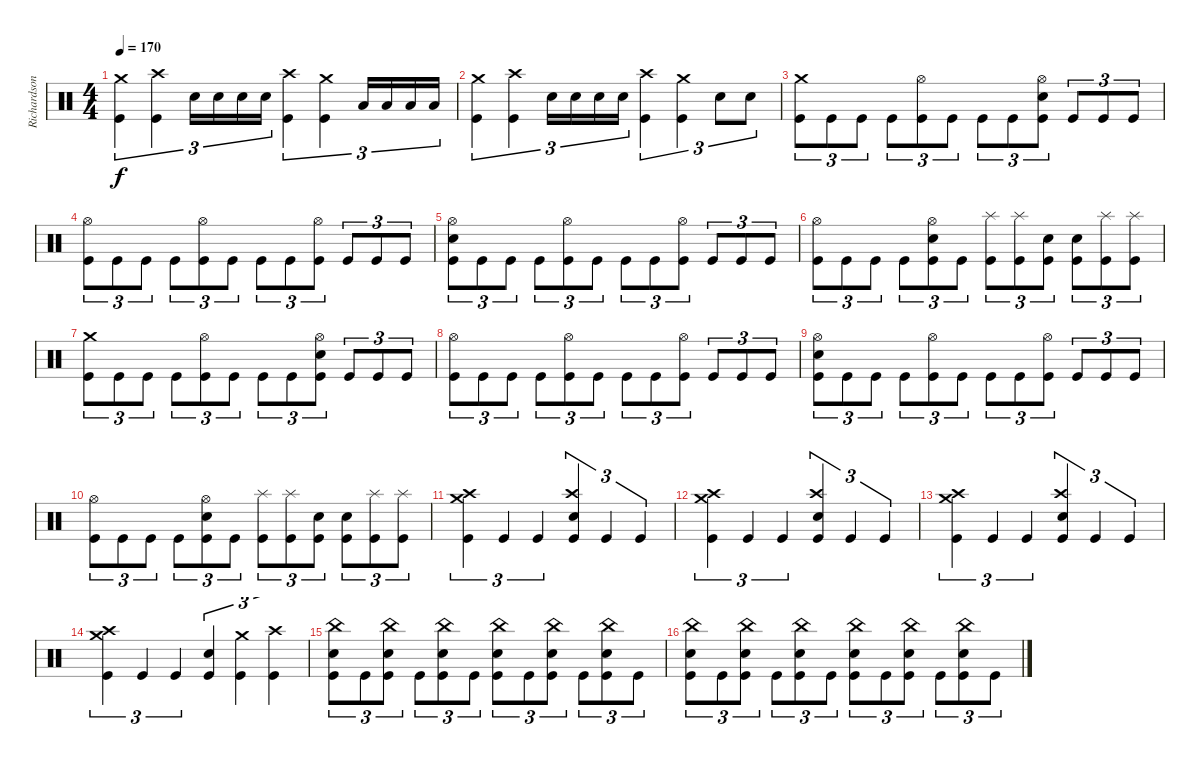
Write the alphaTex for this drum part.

\track ("Richardson" "Richardson") {instrument percussion}
\staff {score}
\articulation defaults
\ts (4 4)
\tempo 170
\clef neutral
\ks c
("Crash medium (hit)" "Kick (hit)").4{tu (3 2) dy f} ("Crash high (hit)" "Kick (hit)").4{tu (3 2)} "Electric Snare (hit)".16{tu (3 2)} "Electric Snare (hit)".16{tu (3 2)} "Electric Snare (hit)".16{tu (3 2)} "Electric Snare (hit)".16{tu (3 2)} ("Crash high (hit)" "Kick (hit)").4{tu (3 2)} ("Crash medium (hit)" "Kick (hit)").4{tu (3 2)} "Low Floor Tom (hit)".16{tu (3 2)} "Low Floor Tom (hit)".16{tu (3 2)} "Low Floor Tom (hit)".16{tu (3 2)} "Low Floor Tom (hit)".16{tu (3 2)} |
("Crash medium (hit)" "Kick (hit)").4{tu (3 2)} ("Crash high (hit)" "Kick (hit)").4{tu (3 2)} "Electric Snare (hit)".16{tu (3 2)} "Electric Snare (hit)".16{tu (3 2)} "Electric Snare (hit)".16{tu (3 2)} "Electric Snare (hit)".16{tu (3 2)} ("Crash high (hit)" "Kick (hit)").4{tu (3 2)} ("Crash medium (hit)" "Kick (hit)").4{tu (3 2)} "Electric Snare (hit)".8{tu (3 2)} "Electric Snare (hit)".8{tu (3 2)} |
("Crash medium (hit)" "Kick (hit)").8{tu (3 2)} "Kick (hit)".8{tu (3 2)} "Kick (hit)".8{tu (3 2)} "Kick (hit)".8{tu (3 2)} ("Hi-Hat (open)" "Kick (hit)").8{tu (3 2)} "Kick (hit)".8{tu (3 2)} "Kick (hit)".8{tu (3 2)} "Kick (hit)".8{tu (3 2)} ("Hi-Hat (open)" "Electric Snare (hit)" "Kick (hit)").8{tu (3 2)} "Kick (hit)".8{tu (3 2)} "Kick (hit)".8{tu (3 2)} "Kick (hit)".8{tu (3 2)} |
("Hi-Hat (open)" "Kick (hit)").8{tu (3 2)} "Kick (hit)".8{tu (3 2)} "Kick (hit)".8{tu (3 2)} "Kick (hit)".8{tu (3 2)} ("Hi-Hat (open)" "Kick (hit)").8{tu (3 2)} "Kick (hit)".8{tu (3 2)} "Kick (hit)".8{tu (3 2)} "Kick (hit)".8{tu (3 2)} ("Hi-Hat (open)" "Kick (hit)").8{tu (3 2)} "Kick (hit)".8{tu (3 2)} "Kick (hit)".8{tu (3 2)} "Kick (hit)".8{tu (3 2)} |
("Hi-Hat (open)" "Electric Snare (hit)" "Kick (hit)").8{tu (3 2)} "Kick (hit)".8{tu (3 2)} "Kick (hit)".8{tu (3 2)} "Kick (hit)".8{tu (3 2)} ("Hi-Hat (open)" "Kick (hit)").8{tu (3 2)} "Kick (hit)".8{tu (3 2)} "Kick (hit)".8{tu (3 2)} "Kick (hit)".8{tu (3 2)} ("Hi-Hat (open)" "Kick (hit)").8{tu (3 2)} "Kick (hit)".8{tu (3 2)} "Kick (hit)".8{tu (3 2)} "Kick (hit)".8{tu (3 2)} |
("Hi-Hat (open)" "Kick (hit)").8{tu (3 2)} "Kick (hit)".8{tu (3 2)} "Kick (hit)".8{tu (3 2)} "Kick (hit)".8{tu (3 2)} ("Hi-Hat (open)" "Electric Snare (hit)" "Kick (hit)").8{tu (3 2)} "Kick (hit)".8{tu (3 2)} ("Splash (hit)" "Kick (hit)").8{tu (3 2)} ("Splash (hit)" "Kick (hit)").8{tu (3 2)} ("Electric Snare (hit)" "Kick (hit)").8{tu (3 2)} ("Electric Snare (hit)" "Kick (hit)").8{tu (3 2)} ("Splash (hit)" "Kick (hit)").8{tu (3 2)} ("Splash (hit)" "Kick (hit)").8{tu (3 2)} |
("Crash medium (hit)" "Kick (hit)").8{tu (3 2)} "Kick (hit)".8{tu (3 2)} "Kick (hit)".8{tu (3 2)} "Kick (hit)".8{tu (3 2)} ("Hi-Hat (open)" "Kick (hit)").8{tu (3 2)} "Kick (hit)".8{tu (3 2)} "Kick (hit)".8{tu (3 2)} "Kick (hit)".8{tu (3 2)} ("Hi-Hat (open)" "Electric Snare (hit)" "Kick (hit)").8{tu (3 2)} "Kick (hit)".8{tu (3 2)} "Kick (hit)".8{tu (3 2)} "Kick (hit)".8{tu (3 2)} |
("Hi-Hat (open)" "Kick (hit)").8{tu (3 2)} "Kick (hit)".8{tu (3 2)} "Kick (hit)".8{tu (3 2)} "Kick (hit)".8{tu (3 2)} ("Hi-Hat (open)" "Kick (hit)").8{tu (3 2)} "Kick (hit)".8{tu (3 2)} "Kick (hit)".8{tu (3 2)} "Kick (hit)".8{tu (3 2)} ("Hi-Hat (open)" "Kick (hit)").8{tu (3 2)} "Kick (hit)".8{tu (3 2)} "Kick (hit)".8{tu (3 2)} "Kick (hit)".8{tu (3 2)} |
("Hi-Hat (open)" "Electric Snare (hit)" "Kick (hit)").8{tu (3 2)} "Kick (hit)".8{tu (3 2)} "Kick (hit)".8{tu (3 2)} "Kick (hit)".8{tu (3 2)} ("Hi-Hat (open)" "Kick (hit)").8{tu (3 2)} "Kick (hit)".8{tu (3 2)} "Kick (hit)".8{tu (3 2)} "Kick (hit)".8{tu (3 2)} ("Hi-Hat (open)" "Kick (hit)").8{tu (3 2)} "Kick (hit)".8{tu (3 2)} "Kick (hit)".8{tu (3 2)} "Kick (hit)".8{tu (3 2)} |
("Hi-Hat (open)" "Kick (hit)").8{tu (3 2)} "Kick (hit)".8{tu (3 2)} "Kick (hit)".8{tu (3 2)} "Kick (hit)".8{tu (3 2)} ("Hi-Hat (open)" "Electric Snare (hit)" "Kick (hit)").8{tu (3 2)} "Kick (hit)".8{tu (3 2)} ("Splash (hit)" "Kick (hit)").8{tu (3 2)} ("Splash (hit)" "Kick (hit)").8{tu (3 2)} ("Electric Snare (hit)" "Kick (hit)").8{tu (3 2)} ("Electric Snare (hit)" "Kick (hit)").8{tu (3 2)} ("Splash (hit)" "Kick (hit)").8{tu (3 2)} ("Splash (hit)" "Kick (hit)").8{tu (3 2)} |
("Crash high (hit)" "Crash medium (hit)" "Kick (hit)").4{tu (3 2)} "Kick (hit)".4{tu (3 2)} "Kick (hit)".4{tu (3 2)} ("Crash high (hit)" "Electric Snare (hit)" "Kick (hit)").4{tu (3 2)} "Kick (hit)".4{tu (3 2)} "Kick (hit)".4{tu (3 2)} |
("Crash high (hit)" "Crash medium (hit)" "Kick (hit)").4{tu (3 2)} "Kick (hit)".4{tu (3 2)} "Kick (hit)".4{tu (3 2)} ("Crash high (hit)" "Electric Snare (hit)" "Kick (hit)").4{tu (3 2)} "Kick (hit)".4{tu (3 2)} "Kick (hit)".4{tu (3 2)} |
("Crash high (hit)" "Crash medium (hit)" "Kick (hit)").4{tu (3 2)} "Kick (hit)".4{tu (3 2)} "Kick (hit)".4{tu (3 2)} ("Crash high (hit)" "Electric Snare (hit)" "Kick (hit)").4{tu (3 2)} "Kick (hit)".4{tu (3 2)} "Kick (hit)".4{tu (3 2)} |
("Crash high (hit)" "Crash medium (hit)" "Kick (hit)").4{tu (3 2)} "Kick (hit)".4{tu (3 2)} "Kick (hit)".4{tu (3 2)} ("Electric Snare (hit)" "Kick (hit)").4{tu (3 2)} ("Crash medium (hit)" "Kick (hit)").4{tu (3 2)} ("Crash high (hit)" "Kick (hit)").4{tu (3 2)} |
("China (hit)" "Electric Snare (hit)" "Kick (hit)").8{tu (3 2)} "Kick (hit)".8{tu (3 2)} ("China (hit)" "Electric Snare (hit)" "Kick (hit)").8{tu (3 2)} "Kick (hit)".8{tu (3 2)} ("China (hit)" "Electric Snare (hit)" "Kick (hit)").8{tu (3 2)} "Kick (hit)".8{tu (3 2)} ("China (hit)" "Electric Snare (hit)" "Kick (hit)").8{tu (3 2)} "Kick (hit)".8{tu (3 2)} ("China (hit)" "Electric Snare (hit)" "Kick (hit)").8{tu (3 2)} "Kick (hit)".8{tu (3 2)} ("China (hit)" "Electric Snare (hit)" "Kick (hit)").8{tu (3 2)} "Kick (hit)".8{tu (3 2)} |
("China (hit)" "Electric Snare (hit)" "Kick (hit)").8{tu (3 2)} "Kick (hit)".8{tu (3 2)} ("China (hit)" "Electric Snare (hit)" "Kick (hit)").8{tu (3 2)} "Kick (hit)".8{tu (3 2)} ("China (hit)" "Electric Snare (hit)" "Kick (hit)").8{tu (3 2)} "Kick (hit)".8{tu (3 2)} ("China (hit)" "Electric Snare (hit)" "Kick (hit)").8{tu (3 2)} "Kick (hit)".8{tu (3 2)} ("China (hit)" "Electric Snare (hit)" "Kick (hit)").8{tu (3 2)} "Kick (hit)".8{tu (3 2)} ("China (hit)" "Electric Snare (hit)" "Kick (hit)").8{tu (3 2)} "Kick (hit)".8{tu (3 2)}
